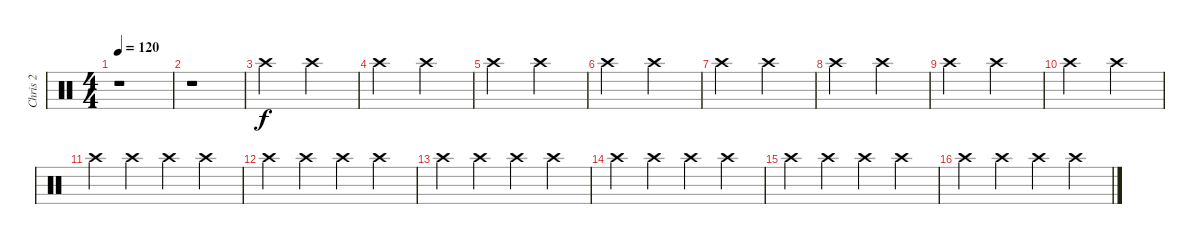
\track ("Chris 2" "Chris 2") {instrument percussion}
\staff {score}
\articulation defaults
\ts (4 4)
\tempo 120
\clef neutral
\ks c
r.1{dy f} |
r.1 |
"Crash high (hit)".2 "Crash high (hit)".2 |
"Crash high (hit)".2 "Crash high (hit)".2 |
"Crash high (hit)".2 "Crash high (hit)".2 |
"Crash high (hit)".2 "Crash high (hit)".2 |
"Crash high (hit)".2 "Crash high (hit)".2 |
"Crash high (hit)".2 "Crash high (hit)".2 |
"Crash high (hit)".2 "Crash high (hit)".2 |
"Crash high (hit)".2 "Crash high (hit)".2 |
"Crash high (hit)".4 "Crash high (hit)".4 "Crash high (hit)".4 "Crash high (hit)".4 |
"Crash high (hit)".4 "Crash high (hit)".4 "Crash high (hit)".4 "Crash high (hit)".4 |
"Crash high (hit)".4 "Crash high (hit)".4 "Crash high (hit)".4 "Crash high (hit)".4 |
"Crash high (hit)".4 "Crash high (hit)".4 "Crash high (hit)".4 "Crash high (hit)".4 |
"Crash high (hit)".4 "Crash high (hit)".4 "Crash high (hit)".4 "Crash high (hit)".4 |
"Crash high (hit)".4 "Crash high (hit)".4 "Crash high (hit)".4 "Crash high (hit)".4
